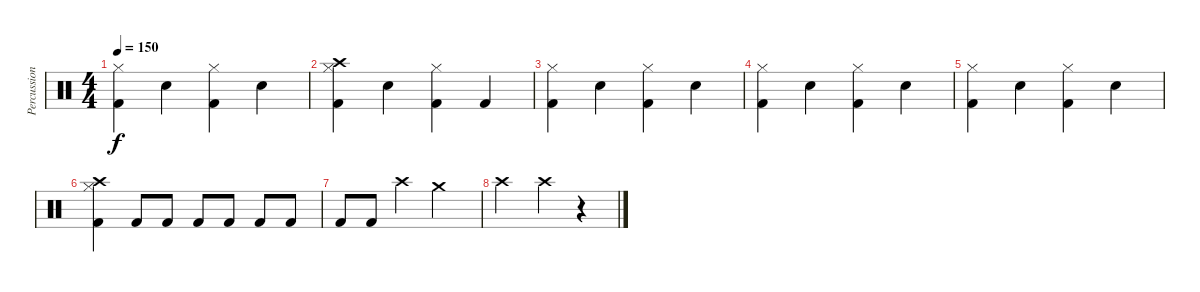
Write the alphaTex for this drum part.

\track ("Percussion" "Percussion") {instrument percussion}
\staff {score}
\articulation defaults
\ts (4 4)
\tempo 150
\clef neutral
\ks c
("Hi-Hat (closed)" "Kick (hit) 2").4{dy f} "Snare (hit) 2".4 ("Hi-Hat (closed)" "Kick (hit) 2").4 "Snare (hit) 2".4 |
("Hi-Hat (closed)" "Kick (hit) 2" "Crash high (hit)").4 "Snare (hit) 2".4 ("Hi-Hat (closed)" "Kick (hit) 2").4 "Kick (hit) 2".4 |
("Hi-Hat (closed)" "Kick (hit) 2").4 "Snare (hit) 2".4 ("Hi-Hat (closed)" "Kick (hit) 2").4 "Snare (hit) 2".4 |
("Hi-Hat (closed)" "Kick (hit) 2").4 "Snare (hit) 2".4 ("Hi-Hat (closed)" "Kick (hit) 2").4 "Snare (hit) 2".4 |
("Hi-Hat (closed)" "Kick (hit) 2").4 "Snare (hit) 2".4 ("Hi-Hat (closed)" "Kick (hit) 2").4 "Snare (hit) 2".4 |
("Hi-Hat (closed)" "Kick (hit) 2" "Crash high (hit)").4 "Kick (hit) 2".8 "Kick (hit) 2".8 "Kick (hit) 2".8 "Kick (hit) 2".8 "Kick (hit) 2".8 "Kick (hit) 2".8 |
"Kick (hit) 2".8 "Kick (hit) 2".8 "Crash high (hit)".4 "Crash medium (hit)".2 |
"Crash high (hit)".2 "Crash high (hit)".4 r.4
